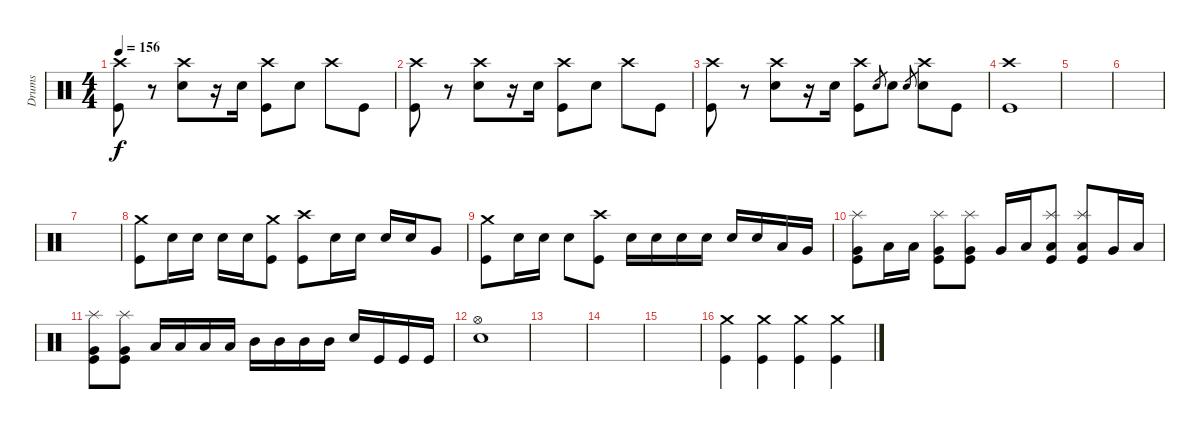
\track ("Drums" "Drums") {instrument percussion}
\staff {score}
\articulation defaults
\ts (4 4)
\tempo 156
\clef neutral
\ks c
("Crash high (hit)" "Kick (hit)").8{dy f} r.8 ("Crash high (hit)" "Electric Snare (hit)").8 r.16 "Electric Snare (hit)".16 ("Crash high (hit)" "Kick (hit)").8 "Electric Snare (hit)".8 "Crash high (hit)".8 "Kick (hit)".8 |
("Crash high (hit)" "Kick (hit)").8 r.8 ("Crash high (hit)" "Electric Snare (hit)").8 r.16 "Electric Snare (hit)".16 ("Crash high (hit)" "Kick (hit)").8 "Electric Snare (hit)".8 "Crash high (hit)".8 "Kick (hit)".8 |
("Crash high (hit)" "Kick (hit)").8 r.8 ("Crash high (hit)" "Electric Snare (hit)").8 r.16 "Electric Snare (hit)".16 ("Crash high (hit)" "Kick (hit)").8 "Electric Snare (hit)".8{gr} "Electric Snare (hit)".8 "Electric Snare (hit)".8{gr} ("Crash high (hit)" "Electric Snare (hit)").8 "Kick (hit)".8 |
("Crash high (hit)" "Kick (hit)").1 |
|
|
|
("Crash medium (hit)" "Kick (hit)").8 "Electric Snare (hit)".16 "Electric Snare (hit)".16 "Electric Snare (hit)".16 "Electric Snare (hit)".16 ("Crash medium (hit)" "Kick (hit)").8 ("Crash high (hit)" "Kick (hit)").8 "Electric Snare (hit)".16 "Electric Snare (hit)".16 "Electric Snare (hit)".16 "Electric Snare (hit)".16 "Very Low Tom (hit)".8 |
("Crash medium (hit)" "Kick (hit)").8 "Electric Snare (hit)".16 "Electric Snare (hit)".16 "Electric Snare (hit)".8 ("Crash high (hit)" "Kick (hit)").8 "Electric Snare (hit)".16 "Electric Snare (hit)".16 "Electric Snare (hit)".16 "Electric Snare (hit)".16 "Electric Snare (hit)".16 "Electric Snare (hit)".16 "Low Tom (hit)".16 "Very Low Tom (hit)".16 |
("Splash (hit)" "Very Low Tom (hit)" "Kick (hit)").8 "Low Floor Tom (hit)".16 "Low Floor Tom (hit)".16 ("Splash (hit)" "Very Low Tom (hit)" "Kick (hit)").8 ("Splash (hit)" "Very Low Tom (hit)" "Kick (hit)").8 "Very Low Tom (hit)".16 "Low Floor Tom (hit)".16 ("Splash (hit)" "Low Floor Tom (hit)" "Kick (hit)").8 ("Splash (hit)" "Low Floor Tom (hit)" "Kick (hit)").8 "Very Low Tom (hit)".16 "Low Floor Tom (hit)".16 |
("Splash (hit)" "Very Low Tom (hit)" "Kick (hit)").8 ("Splash (hit)" "Very Low Tom (hit)" "Kick (hit)").8 "Low Tom (hit)".16 "Low Tom (hit)".16 "Low Tom (hit)".16 "Low Tom (hit)".16 "Mid Tom (hit)".16 "Mid Tom (hit)".16 "Mid Tom (hit)".16 "Mid Tom (hit)".16 "Electric Snare (hit)".16 "Kick (hit)".16 "Kick (hit)".16 "Kick (hit)".16 |
("Hi-Hat (open)" "Electric Snare (hit)").1 |
|
|
|
("Crash medium (hit)" "Kick (hit)").4 ("Crash medium (hit)" "Kick (hit)").4 ("Crash medium (hit)" "Kick (hit)").4 ("Crash medium (hit)" "Kick (hit)").4
